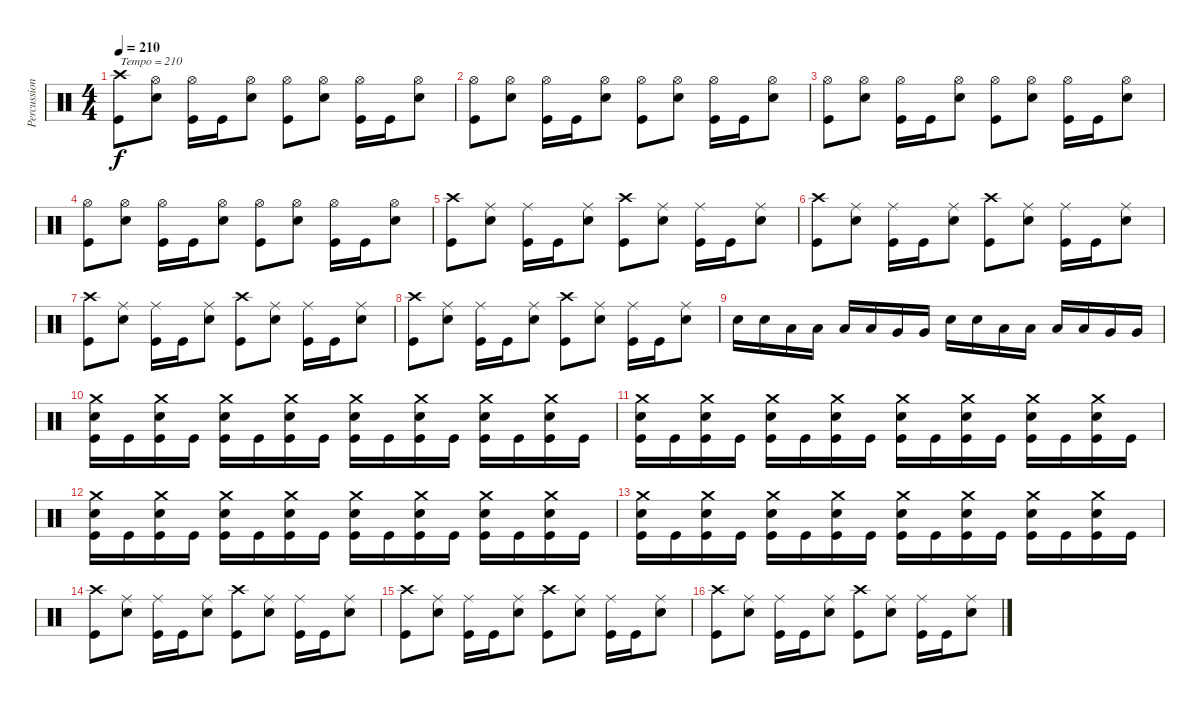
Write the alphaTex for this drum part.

\track ("Percussion" "Percussion") {instrument percussion}
\staff {score}
\articulation defaults
\ts (4 4)
\tempo 210
\clef neutral
\ks c
("Crash high (hit)" "Kick (hit)").8{txt "Tempo = 210" dy f} ("Hi-Hat (open)" "Electric Snare (hit)").8 ("Hi-Hat (open)" "Kick (hit)").16 "Kick (hit)".16 ("Hi-Hat (open)" "Electric Snare (hit)").8 ("Hi-Hat (open)" "Kick (hit)").8 ("Hi-Hat (open)" "Electric Snare (hit)").8 ("Hi-Hat (open)" "Kick (hit)").16 "Kick (hit)".16 ("Hi-Hat (open)" "Electric Snare (hit)").8 |
("Hi-Hat (open)" "Kick (hit)").8 ("Hi-Hat (open)" "Electric Snare (hit)").8 ("Hi-Hat (open)" "Kick (hit)").16 "Kick (hit)".16 ("Hi-Hat (open)" "Electric Snare (hit)").8 ("Hi-Hat (open)" "Kick (hit)").8 ("Hi-Hat (open)" "Electric Snare (hit)").8 ("Hi-Hat (open)" "Kick (hit)").16 "Kick (hit)".16 ("Hi-Hat (open)" "Electric Snare (hit)").8 |
("Hi-Hat (open)" "Kick (hit)").8 ("Hi-Hat (open)" "Electric Snare (hit)").8 ("Hi-Hat (open)" "Kick (hit)").16 "Kick (hit)".16 ("Hi-Hat (open)" "Electric Snare (hit)").8 ("Hi-Hat (open)" "Kick (hit)").8 ("Hi-Hat (open)" "Electric Snare (hit)").8 ("Hi-Hat (open)" "Kick (hit)").16 "Kick (hit)".16 ("Hi-Hat (open)" "Electric Snare (hit)").8 |
("Hi-Hat (open)" "Kick (hit)").8 ("Hi-Hat (open)" "Electric Snare (hit)").8 ("Hi-Hat (open)" "Kick (hit)").16 "Kick (hit)".16 ("Hi-Hat (open)" "Electric Snare (hit)").8 ("Hi-Hat (open)" "Kick (hit)").8 ("Hi-Hat (open)" "Electric Snare (hit)").8 ("Hi-Hat (open)" "Kick (hit)").16 "Kick (hit)".16 ("Hi-Hat (open)" "Electric Snare (hit)").8 |
("Crash high (hit)" "Kick (hit)").8 ("Ride (middle)" "Electric Snare (hit)").8 ("Ride (middle)" "Kick (hit)").16 "Kick (hit)".16 ("Ride (middle)" "Electric Snare (hit)").8 ("Crash high (hit)" "Kick (hit)").8 ("Ride (middle)" "Electric Snare (hit)").8 ("Ride (middle)" "Kick (hit)").16 "Kick (hit)".16 ("Ride (middle)" "Electric Snare (hit)").8 |
("Crash high (hit)" "Kick (hit)").8 ("Ride (middle)" "Electric Snare (hit)").8 ("Ride (middle)" "Kick (hit)").16 "Kick (hit)".16 ("Ride (middle)" "Electric Snare (hit)").8 ("Crash high (hit)" "Kick (hit)").8 ("Ride (middle)" "Electric Snare (hit)").8 ("Ride (middle)" "Kick (hit)").16 "Kick (hit)".16 ("Ride (middle)" "Electric Snare (hit)").8 |
("Crash high (hit)" "Kick (hit)").8 ("Ride (middle)" "Electric Snare (hit)").8 ("Ride (middle)" "Kick (hit)").16 "Kick (hit)".16 ("Ride (middle)" "Electric Snare (hit)").8 ("Crash high (hit)" "Kick (hit)").8 ("Ride (middle)" "Electric Snare (hit)").8 ("Ride (middle)" "Kick (hit)").16 "Kick (hit)".16 ("Ride (middle)" "Electric Snare (hit)").8 |
("Crash high (hit)" "Kick (hit)").8 ("Ride (middle)" "Electric Snare (hit)").8 ("Ride (middle)" "Kick (hit)").16 "Kick (hit)".16 ("Ride (middle)" "Electric Snare (hit)").8 ("Crash high (hit)" "Kick (hit)").8 ("Ride (middle)" "Electric Snare (hit)").8 ("Ride (middle)" "Kick (hit)").16 "Kick (hit)".16 ("Ride (middle)" "Electric Snare (hit)").8 |
"Electric Snare (hit)".16 "Electric Snare (hit)".16 "Low Tom (hit)".16 "Low Tom (hit)".16 "Low Tom (hit)".16 "Low Tom (hit)".16 "Very Low Tom (hit)".16 "Very Low Tom (hit)".16 "Electric Snare (hit)".16 "Electric Snare (hit)".16 "Low Tom (hit)".16 "Low Tom (hit)".16 "Low Tom (hit)".16 "Low Tom (hit)".16 "Very Low Tom (hit)".16 "Very Low Tom (hit)".16 |
("Crash medium (hit)" "Electric Snare (hit)" "Kick (hit)").16 "Kick (hit)".16 ("Crash medium (hit)" "Electric Snare (hit)" "Kick (hit)").16 "Kick (hit)".16 ("Crash medium (hit)" "Electric Snare (hit)" "Kick (hit)").16 "Kick (hit)".16 ("Crash medium (hit)" "Electric Snare (hit)" "Kick (hit)").16 "Kick (hit)".16 ("Crash medium (hit)" "Electric Snare (hit)" "Kick (hit)").16 "Kick (hit)".16 ("Crash medium (hit)" "Electric Snare (hit)" "Kick (hit)").16 "Kick (hit)".16 ("Crash medium (hit)" "Electric Snare (hit)" "Kick (hit)").16 "Kick (hit)".16 ("Crash medium (hit)" "Electric Snare (hit)" "Kick (hit)").16 "Kick (hit)".16 |
("Crash medium (hit)" "Electric Snare (hit)" "Kick (hit)").16 "Kick (hit)".16 ("Crash medium (hit)" "Electric Snare (hit)" "Kick (hit)").16 "Kick (hit)".16 ("Crash medium (hit)" "Electric Snare (hit)" "Kick (hit)").16 "Kick (hit)".16 ("Crash medium (hit)" "Electric Snare (hit)" "Kick (hit)").16 "Kick (hit)".16 ("Crash medium (hit)" "Electric Snare (hit)" "Kick (hit)").16 "Kick (hit)".16 ("Crash medium (hit)" "Electric Snare (hit)" "Kick (hit)").16 "Kick (hit)".16 ("Crash medium (hit)" "Electric Snare (hit)" "Kick (hit)").16 "Kick (hit)".16 ("Crash medium (hit)" "Electric Snare (hit)" "Kick (hit)").16 "Kick (hit)".16 |
("Crash medium (hit)" "Electric Snare (hit)" "Kick (hit)").16 "Kick (hit)".16 ("Crash medium (hit)" "Electric Snare (hit)" "Kick (hit)").16 "Kick (hit)".16 ("Crash medium (hit)" "Electric Snare (hit)" "Kick (hit)").16 "Kick (hit)".16 ("Crash medium (hit)" "Electric Snare (hit)" "Kick (hit)").16 "Kick (hit)".16 ("Crash medium (hit)" "Electric Snare (hit)" "Kick (hit)").16 "Kick (hit)".16 ("Crash medium (hit)" "Electric Snare (hit)" "Kick (hit)").16 "Kick (hit)".16 ("Crash medium (hit)" "Electric Snare (hit)" "Kick (hit)").16 "Kick (hit)".16 ("Crash medium (hit)" "Electric Snare (hit)" "Kick (hit)").16 "Kick (hit)".16 |
("Crash medium (hit)" "Electric Snare (hit)" "Kick (hit)").16 "Kick (hit)".16 ("Crash medium (hit)" "Electric Snare (hit)" "Kick (hit)").16 "Kick (hit)".16 ("Crash medium (hit)" "Electric Snare (hit)" "Kick (hit)").16 "Kick (hit)".16 ("Crash medium (hit)" "Electric Snare (hit)" "Kick (hit)").16 "Kick (hit)".16 ("Crash medium (hit)" "Electric Snare (hit)" "Kick (hit)").16 "Kick (hit)".16 ("Crash medium (hit)" "Electric Snare (hit)" "Kick (hit)").16 "Kick (hit)".16 ("Crash medium (hit)" "Electric Snare (hit)" "Kick (hit)").16 "Kick (hit)".16 ("Crash medium (hit)" "Electric Snare (hit)" "Kick (hit)").16 "Kick (hit)".16 |
("Crash high (hit)" "Kick (hit)").8 ("Ride (middle)" "Electric Snare (hit)").8 ("Ride (middle)" "Kick (hit)").16 "Kick (hit)".16 ("Ride (middle)" "Electric Snare (hit)").8 ("Crash high (hit)" "Kick (hit)").8 ("Ride (middle)" "Electric Snare (hit)").8 ("Ride (middle)" "Kick (hit)").16 "Kick (hit)".16 ("Ride (middle)" "Electric Snare (hit)").8 |
("Crash high (hit)" "Kick (hit)").8 ("Ride (middle)" "Electric Snare (hit)").8 ("Ride (middle)" "Kick (hit)").16 "Kick (hit)".16 ("Ride (middle)" "Electric Snare (hit)").8 ("Crash high (hit)" "Kick (hit)").8 ("Ride (middle)" "Electric Snare (hit)").8 ("Ride (middle)" "Kick (hit)").16 "Kick (hit)".16 ("Ride (middle)" "Electric Snare (hit)").8 |
("Crash high (hit)" "Kick (hit)").8 ("Ride (middle)" "Electric Snare (hit)").8 ("Ride (middle)" "Kick (hit)").16 "Kick (hit)".16 ("Ride (middle)" "Electric Snare (hit)").8 ("Crash high (hit)" "Kick (hit)").8 ("Ride (middle)" "Electric Snare (hit)").8 ("Ride (middle)" "Kick (hit)").16 "Kick (hit)".16 ("Ride (middle)" "Electric Snare (hit)").8
